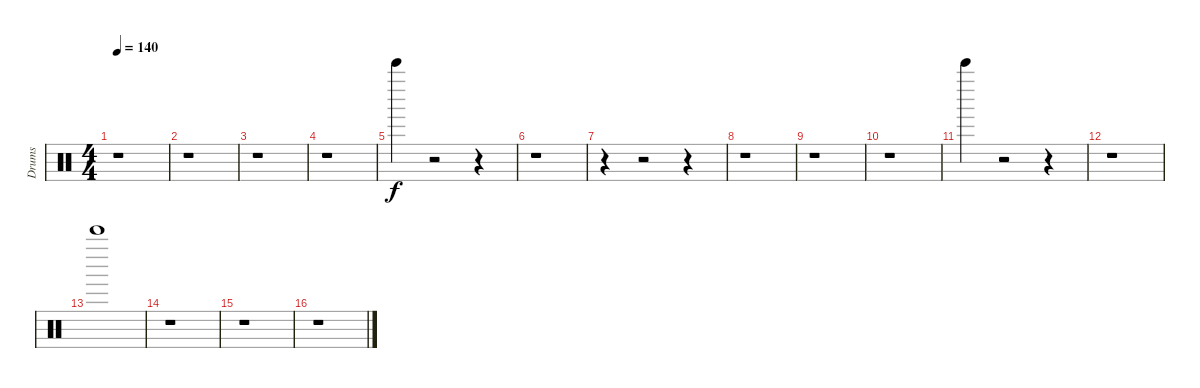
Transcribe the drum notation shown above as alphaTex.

\track ("Drums" "Drums") {instrument percussion}
\staff {score}
\articulation defaults
\ts (4 4)
\tempo 140
\clef neutral
\ks c
r.1{dy f} |
r.1 |
r.1 |
r.1 |
"Bell Tree (hit)".4 r.2 r.4 |
r.1 |
r.4 r.2 r.4 |
r.1 |
r.1 |
r.1 |
"Bell Tree (hit)".4 r.2 r.4 |
r.1 |
"Bell Tree (hit)".1 |
r.1 |
r.1 |
r.1
